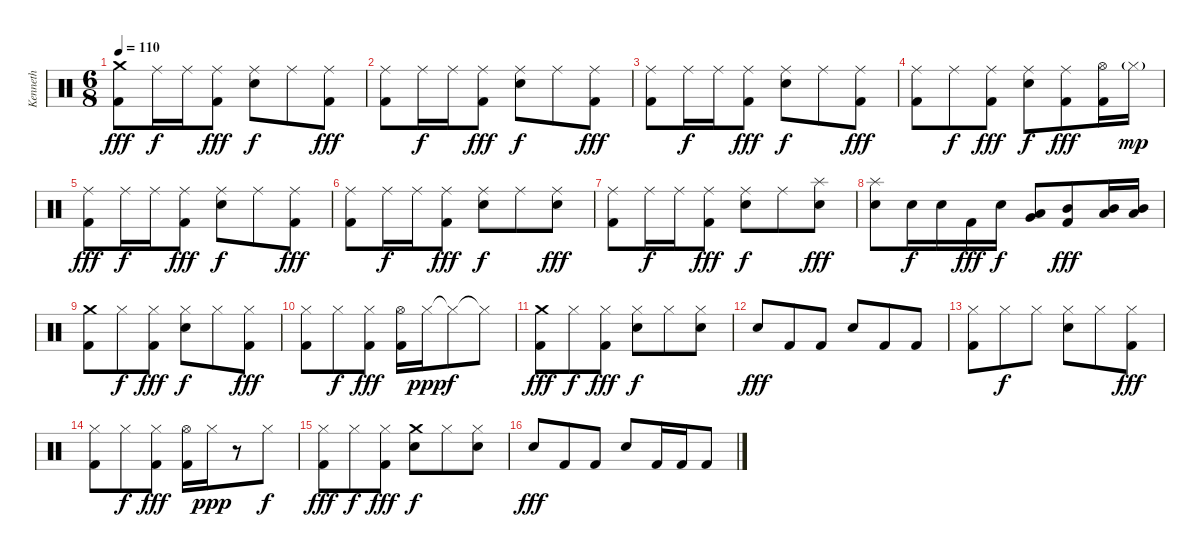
\track ("Kenneth " "Kenneth ") {instrument percussion}
\staff {score}
\articulation defaults
\ts (6 8)
\tempo 110
\clef neutral
\ks c
("Crash medium (hit)" "Kick (hit) 2").8{dy fff} "Ride (middle)".16{dy f} "Ride (middle)".16 ("Ride (middle)" "Kick (hit) 2").8{dy fff} ("Ride (middle)" "Electric Snare (hit)").8{dy f} "Ride (middle)".8 ("Ride (middle)" "Kick (hit) 2").8{dy fff} |
("Ride (middle)" "Kick (hit) 2").8 "Ride (middle)".16{dy f} "Ride (middle)".16 ("Ride (middle)" "Kick (hit) 2").8{dy fff} ("Ride (middle)" "Electric Snare (hit)").8{dy f} "Ride (middle)".8 ("Ride (middle)" "Kick (hit) 2").8{dy fff} |
("Ride (middle)" "Kick (hit) 2").8 "Ride (middle)".16{dy f} "Ride (middle)".16 ("Ride (middle)" "Kick (hit) 2").8{dy fff} ("Ride (middle)" "Electric Snare (hit)").8{dy f} "Ride (middle)".8 ("Ride (middle)" "Kick (hit) 2").8{dy fff} |
("Ride (middle)" "Kick (hit) 2").8 "Ride (middle)".8{dy f} ("Ride (middle)" "Kick (hit) 2").8{dy fff} ("Ride (middle)" "Electric Snare (hit)").8{dy f} ("Ride (middle)" "Kick (hit) 2").8{dy fff} ("Hi-Hat (open)" "Kick (hit) 2").16 "Hi-Hat (closed)"{g}.16{dy mp} |
("Ride (middle)" "Kick (hit) 2").8{dy fff} "Ride (middle)".16{dy f} "Ride (middle)".16 ("Ride (middle)" "Kick (hit) 2").8{dy fff} ("Ride (middle)" "Electric Snare (hit)").8{dy f} "Ride (middle)".8 ("Ride (middle)" "Kick (hit) 2").8{dy fff} |
("Ride (middle)" "Kick (hit) 2").8 "Ride (middle)".16{dy f} "Ride (middle)".16 ("Ride (middle)" "Kick (hit) 2").8{dy fff} ("Ride (middle)" "Electric Snare (hit)").8{dy f} "Ride (middle)".8 ("Ride (middle)" "Electric Snare (hit)").8{dy fff} |
("Ride (middle)" "Kick (hit) 2").8 "Ride (middle)".16{dy f} "Ride (middle)".16 ("Ride (middle)" "Kick (hit) 2").8{dy fff} ("Ride (middle)" "Electric Snare (hit)").8{dy f} "Ride (middle)".8 ("Splash (hit)" "Electric Snare (hit)").8{dy fff} |
("Splash (hit)" "Electric Snare (hit)").8 "Electric Snare (hit)".16{dy f} "Electric Snare (hit)".16 "Kick (hit) 2".16{dy fff} "Electric Snare (hit)".16{dy f} ("Low Tom (hit)" "Very Low Tom (hit)").8 ("Mid Tom (hit)" "Kick (hit) 2").8{dy fff} ("Mid Tom (hit)" "Low Tom (hit)").16 ("Mid Tom (hit)" "Low Tom (hit)").16 |
("Crash medium (hit)" "Kick (hit) 2").8 "Hi-Hat (closed)".8{dy f} ("Hi-Hat (closed)" "Kick (hit) 2").8{dy fff} ("Hi-Hat (closed)" "Electric Snare (hit)").8{dy f} "Hi-Hat (closed)".8 ("Hi-Hat (closed)" "Kick (hit) 2").8{dy fff} |
("Hi-Hat (closed)" "Kick (hit) 2").8 "Hi-Hat (closed)".8{dy f} ("Hi-Hat (closed)" "Kick (hit) 2").8{dy fff} ("Hi-Hat (open)" "Kick (hit) 2").16 "Hi-Hat (closed)".16{dy ppp} "Hi-Hat (closed)"{t}.8{dy f} "Hi-Hat (closed)"{t}.8 |
("Crash medium (hit)" "Kick (hit) 2").8{dy fff} "Hi-Hat (closed)".8{dy f} ("Hi-Hat (closed)" "Kick (hit) 2").8{dy fff} ("Hi-Hat (closed)" "Electric Snare (hit)").8{dy f} "Hi-Hat (closed)".8 ("Hi-Hat (closed)" "Electric Snare (hit)").8 |
"Electric Snare (hit)".8{dy fff} "Kick (hit) 2".8 "Kick (hit) 2".8 "Electric Snare (hit)".8 "Kick (hit) 2".8 "Kick (hit) 2".8 |
("Hi-Hat (closed)" "Kick (hit) 2").8 "Hi-Hat (closed)".8{dy f} "Hi-Hat (closed)".8 ("Hi-Hat (closed)" "Electric Snare (hit)").8 "Hi-Hat (closed)".8 ("Hi-Hat (closed)" "Kick (hit) 2").8{dy fff} |
("Hi-Hat (closed)" "Kick (hit) 2").8 "Hi-Hat (closed)".8{dy f} ("Hi-Hat (closed)" "Kick (hit) 2").8{dy fff} ("Hi-Hat (open)" "Kick (hit) 2").16 "Hi-Hat (closed)".16{dy ppp} r.8 "Hi-Hat (closed)".8{dy f} |
("Hi-Hat (closed)" "Kick (hit) 2").8{dy fff} "Hi-Hat (closed)".8{dy f} ("Hi-Hat (closed)" "Kick (hit) 2").8{dy fff} ("Crash medium (hit)" "Electric Snare (hit)").8{dy f} "Hi-Hat (closed)".8 ("Hi-Hat (closed)" "Electric Snare (hit)").8 |
"Electric Snare (hit)".8{dy fff} "Kick (hit) 2".8 "Kick (hit) 2".8 "Electric Snare (hit)".8 "Kick (hit) 2".16 "Kick (hit) 2".16 "Kick (hit) 2".8
